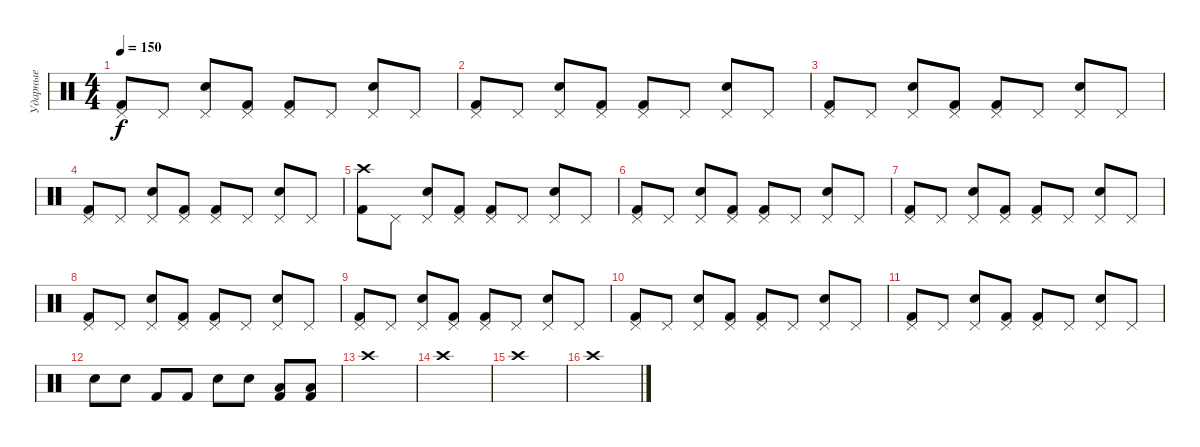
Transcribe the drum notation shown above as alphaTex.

\track ("Ударные" "Ударные") {instrument percussion}
\staff {score}
\articulation defaults
\ts (4 4)
\tempo 150
\clef neutral
\ks c
("Pedal Hi-Hat (hit)" "Kick (hit) 2").8{dy f} "Pedal Hi-Hat (hit)".8 ("Pedal Hi-Hat (hit)" "Snare (hit) 2").8 ("Pedal Hi-Hat (hit)" "Kick (hit) 2").8 ("Pedal Hi-Hat (hit)" "Kick (hit) 2").8 "Pedal Hi-Hat (hit)".8 ("Pedal Hi-Hat (hit)" "Snare (hit) 2").8 "Pedal Hi-Hat (hit)".8 |
("Pedal Hi-Hat (hit)" "Kick (hit) 2").8 "Pedal Hi-Hat (hit)".8 ("Pedal Hi-Hat (hit)" "Snare (hit) 2").8 ("Pedal Hi-Hat (hit)" "Kick (hit) 2").8 ("Pedal Hi-Hat (hit)" "Kick (hit) 2").8 "Pedal Hi-Hat (hit)".8 ("Pedal Hi-Hat (hit)" "Snare (hit) 2").8 "Pedal Hi-Hat (hit)".8 |
("Pedal Hi-Hat (hit)" "Kick (hit) 2").8 "Pedal Hi-Hat (hit)".8 ("Pedal Hi-Hat (hit)" "Snare (hit) 2").8 ("Pedal Hi-Hat (hit)" "Kick (hit) 2").8 ("Pedal Hi-Hat (hit)" "Kick (hit) 2").8 "Pedal Hi-Hat (hit)".8 ("Pedal Hi-Hat (hit)" "Snare (hit) 2").8 "Pedal Hi-Hat (hit)".8 |
("Pedal Hi-Hat (hit)" "Kick (hit) 2").8 "Pedal Hi-Hat (hit)".8 ("Pedal Hi-Hat (hit)" "Snare (hit) 2").8 ("Pedal Hi-Hat (hit)" "Kick (hit) 2").8 ("Pedal Hi-Hat (hit)" "Kick (hit) 2").8 "Pedal Hi-Hat (hit)".8 ("Pedal Hi-Hat (hit)" "Snare (hit) 2").8 "Pedal Hi-Hat (hit)".8 |
("Crash high (hit)" "Kick (hit) 2").8 "Pedal Hi-Hat (hit)".8 ("Pedal Hi-Hat (hit)" "Snare (hit) 2").8 ("Pedal Hi-Hat (hit)" "Kick (hit) 2").8 ("Pedal Hi-Hat (hit)" "Kick (hit) 2").8 "Pedal Hi-Hat (hit)".8 ("Pedal Hi-Hat (hit)" "Snare (hit) 2").8 "Pedal Hi-Hat (hit)".8 |
("Pedal Hi-Hat (hit)" "Kick (hit) 2").8 "Pedal Hi-Hat (hit)".8 ("Pedal Hi-Hat (hit)" "Snare (hit) 2").8 ("Pedal Hi-Hat (hit)" "Kick (hit) 2").8 ("Pedal Hi-Hat (hit)" "Kick (hit) 2").8 "Pedal Hi-Hat (hit)".8 ("Pedal Hi-Hat (hit)" "Snare (hit) 2").8 "Pedal Hi-Hat (hit)".8 |
("Pedal Hi-Hat (hit)" "Kick (hit) 2").8 "Pedal Hi-Hat (hit)".8 ("Pedal Hi-Hat (hit)" "Snare (hit) 2").8 ("Pedal Hi-Hat (hit)" "Kick (hit) 2").8 ("Pedal Hi-Hat (hit)" "Kick (hit) 2").8 "Pedal Hi-Hat (hit)".8 ("Pedal Hi-Hat (hit)" "Snare (hit) 2").8 "Pedal Hi-Hat (hit)".8 |
("Pedal Hi-Hat (hit)" "Kick (hit) 2").8 "Pedal Hi-Hat (hit)".8 ("Pedal Hi-Hat (hit)" "Snare (hit) 2").8 ("Pedal Hi-Hat (hit)" "Kick (hit) 2").8 ("Pedal Hi-Hat (hit)" "Kick (hit) 2").8 "Pedal Hi-Hat (hit)".8 ("Pedal Hi-Hat (hit)" "Snare (hit) 2").8 "Pedal Hi-Hat (hit)".8 |
("Pedal Hi-Hat (hit)" "Kick (hit) 2").8 "Pedal Hi-Hat (hit)".8 ("Pedal Hi-Hat (hit)" "Snare (hit) 2").8 ("Pedal Hi-Hat (hit)" "Kick (hit) 2").8 ("Pedal Hi-Hat (hit)" "Kick (hit) 2").8 "Pedal Hi-Hat (hit)".8 ("Pedal Hi-Hat (hit)" "Snare (hit) 2").8 "Pedal Hi-Hat (hit)".8 |
("Pedal Hi-Hat (hit)" "Kick (hit) 2").8 "Pedal Hi-Hat (hit)".8 ("Pedal Hi-Hat (hit)" "Snare (hit) 2").8 ("Pedal Hi-Hat (hit)" "Kick (hit) 2").8 ("Pedal Hi-Hat (hit)" "Kick (hit) 2").8 "Pedal Hi-Hat (hit)".8 ("Pedal Hi-Hat (hit)" "Snare (hit) 2").8 "Pedal Hi-Hat (hit)".8 |
("Pedal Hi-Hat (hit)" "Kick (hit) 2").8 "Pedal Hi-Hat (hit)".8 ("Pedal Hi-Hat (hit)" "Snare (hit) 2").8 ("Pedal Hi-Hat (hit)" "Kick (hit) 2").8 ("Pedal Hi-Hat (hit)" "Kick (hit) 2").8 "Pedal Hi-Hat (hit)".8 ("Pedal Hi-Hat (hit)" "Snare (hit) 2").8 "Pedal Hi-Hat (hit)".8 |
"Snare (hit) 2".8 "Snare (hit) 2".8 "Kick (hit) 2".8 "Kick (hit) 2".8 "Snare (hit) 2".8 "Snare (hit) 2".8 ("Low Floor Tom (hit)" "Kick (hit) 2").8 ("Low Floor Tom (hit)" "Kick (hit) 2").8 |
"Crash high (hit)".1 |
"Crash high (hit)".1 |
"Crash high (hit)".1 |
"Crash high (hit)".1
